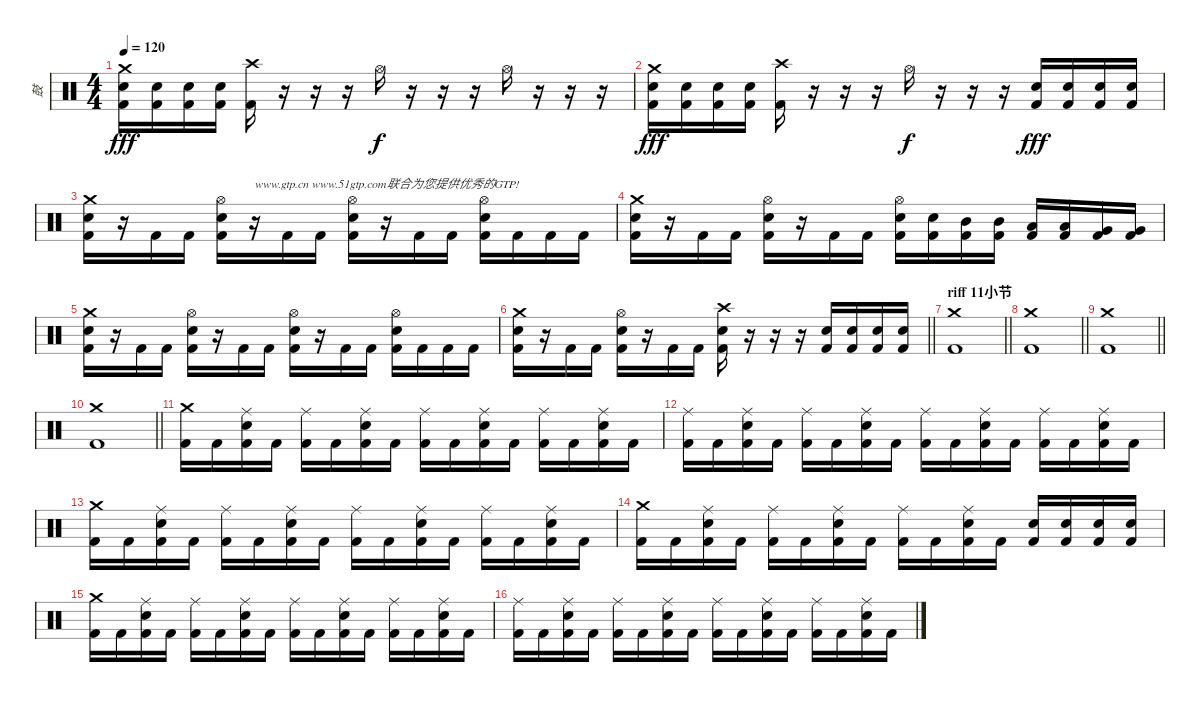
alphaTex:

\track ("鼓" "鼓") {instrument percussion}
\staff {score}
\articulation defaults
\ts (4 4)
\tempo 120
\clef neutral
\ks c
("Crash medium (hit)" "Snare (hit) 2" "Kick (hit) 2").16{dy fff} ("Snare (hit) 2" "Kick (hit) 2").16 ("Snare (hit) 2" "Kick (hit) 2").16 ("Snare (hit) 2" "Kick (hit) 2").16 ("Crash high (hit)" "Kick (hit) 2").16 r.16 r.16 r.16 "Hi-Hat (open)".16{dy f} r.16 r.16 r.16 "Hi-Hat (open)".16 r.16 r.16 r.16 |
("Crash medium (hit)" "Snare (hit) 2" "Kick (hit) 2").16{dy fff} ("Snare (hit) 2" "Kick (hit) 2").16 ("Snare (hit) 2" "Kick (hit) 2").16 ("Snare (hit) 2" "Kick (hit) 2").16 ("Crash high (hit)" "Kick (hit) 2").16 r.16 r.16 r.16 "Hi-Hat (open)".16{dy f} r.16 r.16 r.16 ("Snare (hit) 2" "Kick (hit) 2").16{dy fff} ("Snare (hit) 2" "Kick (hit) 2").16 ("Snare (hit) 2" "Kick (hit) 2").16 ("Snare (hit) 2" "Kick (hit) 2").16 |
("Crash medium (hit)" "Snare (hit) 2" "Kick (hit) 2").16 r.16 "Kick (hit) 2".16 "Kick (hit) 2".16 ("Hi-Hat (open)" "Snare (hit) 2" "Kick (hit) 2").16 r.16{txt "www.gtp.cn www.51gtp.com联合为您提供优秀的GTP!"} "Kick (hit) 2".16 "Kick (hit) 2".16 ("Hi-Hat (open)" "Snare (hit) 2" "Kick (hit) 2").16 r.16 "Kick (hit) 2".16 "Kick (hit) 2".16 ("Hi-Hat (open)" "Snare (hit) 2" "Kick (hit) 2").16 "Kick (hit) 2".16 "Kick (hit) 2".16 "Kick (hit) 2".16 |
("Crash medium (hit)" "Snare (hit) 2" "Kick (hit) 2").16 r.16 "Kick (hit) 2".16 "Kick (hit) 2".16 ("Hi-Hat (open)" "Snare (hit) 2" "Kick (hit) 2").16 r.16 "Kick (hit) 2".16 "Kick (hit) 2".16 ("Hi-Hat (open)" "Snare (hit) 2" "Kick (hit) 2").16 ("Snare (hit) 2" "Kick (hit) 2").16 ("Mid Tom (hit)" "Kick (hit) 2").16 ("Mid Tom (hit)" "Kick (hit) 2").16 ("Low Tom (hit)" "Kick (hit) 2").16 ("Low Tom (hit)" "Kick (hit) 2").16 ("Very Low Tom (hit)" "Kick (hit) 2").16 ("Very Low Tom (hit)" "Kick (hit) 2").16 |
("Crash medium (hit)" "Snare (hit) 2" "Kick (hit) 2").16 r.16 "Kick (hit) 2".16 "Kick (hit) 2".16 ("Hi-Hat (open)" "Snare (hit) 2" "Kick (hit) 2").16 r.16 "Kick (hit) 2".16 "Kick (hit) 2".16 ("Hi-Hat (open)" "Snare (hit) 2" "Kick (hit) 2").16 r.16 "Kick (hit) 2".16 "Kick (hit) 2".16 ("Hi-Hat (open)" "Snare (hit) 2" "Kick (hit) 2").16 "Kick (hit) 2".16 "Kick (hit) 2".16 "Kick (hit) 2".16 |
\barLineRight lightlight
("Crash medium (hit)" "Snare (hit) 2" "Kick (hit) 2").16 r.16 "Kick (hit) 2".16 "Kick (hit) 2".16 ("Hi-Hat (open)" "Snare (hit) 2" "Kick (hit) 2").16 r.16 "Kick (hit) 2".16 "Kick (hit) 2".16 ("Crash high (hit)" "Snare (hit) 2" "Kick (hit) 2").16 r.16 r.16 r.16 ("Snare (hit) 2" "Kick (hit) 2").16 ("Snare (hit) 2" "Kick (hit) 2").16 ("Snare (hit) 2" "Kick (hit) 2").16 ("Snare (hit) 2" "Kick (hit) 2").16 |
\section ("" "riff 11小节")
\barLineRight lightlight
("Crash medium (hit)" "Kick (hit) 2").1 |
\barLineRight lightlight
("Crash medium (hit)" "Kick (hit) 2").1 |
\barLineRight lightlight
("Crash medium (hit)" "Kick (hit) 2").1 |
\barLineRight lightlight
("Crash medium (hit)" "Kick (hit) 2").1 |
("Crash medium (hit)" "Kick (hit) 2").16 "Kick (hit) 2".16 ("Ride (middle)" "Snare (hit) 2" "Kick (hit) 2").16 "Kick (hit) 2".16 ("Ride (middle)" "Kick (hit) 2").16 "Kick (hit) 2".16 ("Ride (middle)" "Snare (hit) 2" "Kick (hit) 2").16 "Kick (hit) 2".16 ("Ride (middle)" "Kick (hit) 2").16 "Kick (hit) 2".16 ("Ride (middle)" "Snare (hit) 2" "Kick (hit) 2").16 "Kick (hit) 2".16 ("Ride (middle)" "Kick (hit) 2").16 "Kick (hit) 2".16 ("Ride (middle)" "Snare (hit) 2" "Kick (hit) 2").16 "Kick (hit) 2".16 |
("Ride (middle)" "Kick (hit) 2").16 "Kick (hit) 2".16 ("Ride (middle)" "Snare (hit) 2" "Kick (hit) 2").16 "Kick (hit) 2".16 ("Ride (middle)" "Kick (hit) 2").16 "Kick (hit) 2".16 ("Ride (middle)" "Snare (hit) 2" "Kick (hit) 2").16 "Kick (hit) 2".16 ("Ride (middle)" "Kick (hit) 2").16 "Kick (hit) 2".16 ("Ride (middle)" "Snare (hit) 2" "Kick (hit) 2").16 "Kick (hit) 2".16 ("Ride (middle)" "Kick (hit) 2").16 "Kick (hit) 2".16 ("Ride (middle)" "Snare (hit) 2" "Kick (hit) 2").16 "Kick (hit) 2".16 |
("Crash medium (hit)" "Kick (hit) 2").16 "Kick (hit) 2".16 ("Ride (middle)" "Snare (hit) 2" "Kick (hit) 2").16 "Kick (hit) 2".16 ("Ride (middle)" "Kick (hit) 2").16 "Kick (hit) 2".16 ("Ride (middle)" "Snare (hit) 2" "Kick (hit) 2").16 "Kick (hit) 2".16 ("Ride (middle)" "Kick (hit) 2").16 "Kick (hit) 2".16 ("Ride (middle)" "Snare (hit) 2" "Kick (hit) 2").16 "Kick (hit) 2".16 ("Ride (middle)" "Kick (hit) 2").16 "Kick (hit) 2".16 ("Ride (middle)" "Snare (hit) 2" "Kick (hit) 2").16 "Kick (hit) 2".16 |
("Crash medium (hit)" "Kick (hit) 2").16 "Kick (hit) 2".16 ("Ride (middle)" "Snare (hit) 2" "Kick (hit) 2").16 "Kick (hit) 2".16 ("Ride (middle)" "Kick (hit) 2").16 "Kick (hit) 2".16 ("Ride (middle)" "Snare (hit) 2" "Kick (hit) 2").16 "Kick (hit) 2".16 ("Ride (middle)" "Kick (hit) 2").16 "Kick (hit) 2".16 ("Ride (middle)" "Snare (hit) 2" "Kick (hit) 2").16 "Kick (hit) 2".16 ("Snare (hit) 2" "Kick (hit) 2").16 ("Snare (hit) 2" "Kick (hit) 2").16 ("Snare (hit) 2" "Kick (hit) 2").16 ("Snare (hit) 2" "Kick (hit) 2").16 |
("Crash medium (hit)" "Kick (hit) 2").16 "Kick (hit) 2".16 ("Ride (middle)" "Snare (hit) 2" "Kick (hit) 2").16 "Kick (hit) 2".16 ("Ride (middle)" "Kick (hit) 2").16 "Kick (hit) 2".16 ("Ride (middle)" "Snare (hit) 2" "Kick (hit) 2").16 "Kick (hit) 2".16 ("Ride (middle)" "Kick (hit) 2").16 "Kick (hit) 2".16 ("Ride (middle)" "Snare (hit) 2" "Kick (hit) 2").16 "Kick (hit) 2".16 ("Ride (middle)" "Kick (hit) 2").16 "Kick (hit) 2".16 ("Ride (middle)" "Snare (hit) 2" "Kick (hit) 2").16 "Kick (hit) 2".16 |
("Ride (middle)" "Kick (hit) 2").16 "Kick (hit) 2".16 ("Ride (middle)" "Snare (hit) 2" "Kick (hit) 2").16 "Kick (hit) 2".16 ("Ride (middle)" "Kick (hit) 2").16 "Kick (hit) 2".16 ("Ride (middle)" "Snare (hit) 2" "Kick (hit) 2").16 "Kick (hit) 2".16 ("Ride (middle)" "Kick (hit) 2").16 "Kick (hit) 2".16 ("Ride (middle)" "Snare (hit) 2" "Kick (hit) 2").16 "Kick (hit) 2".16 ("Ride (middle)" "Kick (hit) 2").16 "Kick (hit) 2".16 ("Ride (middle)" "Snare (hit) 2" "Kick (hit) 2").16 "Kick (hit) 2".16
